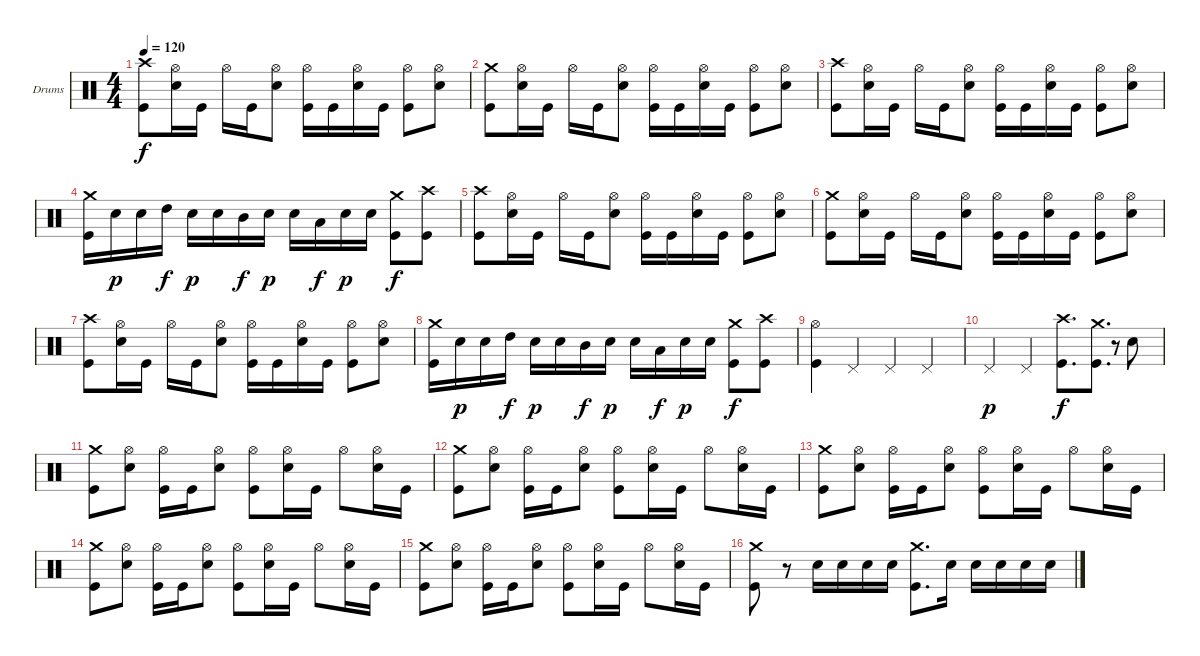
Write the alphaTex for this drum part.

\bracketExtendMode groupsimilarinstruments
\firstSystemTrackNameOrientation horizontal
\otherSystemsTrackNameOrientation horizontal
\track ("Drumkit" "Drums") {instrument percussion}
\staff {score}
\articulation defaults
\ts (4 4)
\tempo 120
\clef neutral
\ks c
("Crash high (hit)" "Kick (hit)").8{dy f} ("Hi-Hat (open)" "Snare (hit) 2").16 "Kick (hit)".16 "Hi-Hat (open)".16 "Kick (hit)".16 ("Hi-Hat (open)" "Snare (hit) 2").8 ("Hi-Hat (open)" "Kick (hit)").16 "Kick (hit)".16 ("Hi-Hat (open)" "Snare (hit) 2").16 "Kick (hit)".16 ("Hi-Hat (open)" "Kick (hit)").8 ("Hi-Hat (open)" "Snare (hit) 2").8 |
("Crash medium (hit)" "Kick (hit)").8 ("Hi-Hat (open)" "Snare (hit) 2").16 "Kick (hit)".16 "Hi-Hat (open)".16 "Kick (hit)".16 ("Hi-Hat (open)" "Snare (hit) 2").8 ("Hi-Hat (open)" "Kick (hit)").16 "Kick (hit)".16 ("Hi-Hat (open)" "Snare (hit) 2").16 "Kick (hit)".16 ("Hi-Hat (open)" "Kick (hit)").8 ("Hi-Hat (open)" "Snare (hit) 2").8 |
("Crash high (hit)" "Kick (hit)").8 ("Hi-Hat (open)" "Snare (hit) 2").16 "Kick (hit)".16 "Hi-Hat (open)".16 "Kick (hit)".16 ("Hi-Hat (open)" "Snare (hit) 2").8 ("Hi-Hat (open)" "Kick (hit)").16 "Kick (hit)".16 ("Hi-Hat (open)" "Snare (hit) 2").16 "Kick (hit)".16 ("Hi-Hat (open)" "Kick (hit)").8 ("Hi-Hat (open)" "Snare (hit) 2").8 |
("Crash medium (hit)" "Kick (hit)").16 "Snare (hit) 2".16{dy p} "Snare (hit) 2".16 "High Tom (hit)".16{dy f} "Snare (hit) 2".16{dy p} "Snare (hit) 2".16 "Mid Tom (hit)".16{dy f} "Snare (hit) 2".16{dy p} "Snare (hit) 2".16 "Low Tom (hit)".16{dy f} "Snare (hit) 2".16{dy p} "Snare (hit) 2".16 ("Crash medium (hit)" "Kick (hit)").8{dy f} ("Crash high (hit)" "Kick (hit)").8 |
("Crash high (hit)" "Kick (hit)").8 ("Hi-Hat (open)" "Snare (hit) 2").16 "Kick (hit)".16 "Hi-Hat (open)".16 "Kick (hit)".16 ("Hi-Hat (open)" "Snare (hit) 2").8 ("Hi-Hat (open)" "Kick (hit)").16 "Kick (hit)".16 ("Hi-Hat (open)" "Snare (hit) 2").16 "Kick (hit)".16 ("Hi-Hat (open)" "Kick (hit)").8 ("Hi-Hat (open)" "Snare (hit) 2").8 |
("Crash medium (hit)" "Kick (hit)").8 ("Hi-Hat (open)" "Snare (hit) 2").16 "Kick (hit)".16 "Hi-Hat (open)".16 "Kick (hit)".16 ("Hi-Hat (open)" "Snare (hit) 2").8 ("Hi-Hat (open)" "Kick (hit)").16 "Kick (hit)".16 ("Hi-Hat (open)" "Snare (hit) 2").16 "Kick (hit)".16 ("Hi-Hat (open)" "Kick (hit)").8 ("Hi-Hat (open)" "Snare (hit) 2").8 |
("Crash high (hit)" "Kick (hit)").8 ("Hi-Hat (open)" "Snare (hit) 2").16 "Kick (hit)".16 "Hi-Hat (open)".16 "Kick (hit)".16 ("Hi-Hat (open)" "Snare (hit) 2").8 ("Hi-Hat (open)" "Kick (hit)").16 "Kick (hit)".16 ("Hi-Hat (open)" "Snare (hit) 2").16 "Kick (hit)".16 ("Hi-Hat (open)" "Kick (hit)").8 ("Hi-Hat (open)" "Snare (hit) 2").8 |
("Crash medium (hit)" "Kick (hit)").16 "Snare (hit) 2".16{dy p} "Snare (hit) 2".16 "High Tom (hit)".16{dy f} "Snare (hit) 2".16{dy p} "Snare (hit) 2".16 "Mid Tom (hit)".16{dy f} "Snare (hit) 2".16{dy p} "Snare (hit) 2".16 "Low Tom (hit)".16{dy f} "Snare (hit) 2".16{dy p} "Snare (hit) 2".16 ("Crash medium (hit)" "Kick (hit)").8{dy f} ("Crash high (hit)" "Kick (hit)").8 |
("Hi-Hat (open)" "Kick (hit)").4 "Pedal Hi-Hat (hit)".4 "Pedal Hi-Hat (hit)".4 "Pedal Hi-Hat (hit)".4 |
"Pedal Hi-Hat (hit)".4{dy p} "Pedal Hi-Hat (hit)".4 ("Crash high (hit)" "Kick (hit)").8{d dy f} ("Crash medium (hit)" "Kick (hit)").8{d} r.8{gr} "Snare (hit) 2".8 |
("Crash medium (hit)" "Kick (hit)").8 ("Hi-Hat (open)" "Snare (hit) 2").8 ("Hi-Hat (open)" "Kick (hit)").16 "Kick (hit)".16 ("Hi-Hat (open)" "Snare (hit) 2").8 ("Hi-Hat (open)" "Kick (hit)").8 ("Hi-Hat (open)" "Snare (hit) 2").16 "Kick (hit)".16 "Hi-Hat (open)".8 ("Hi-Hat (open)" "Snare (hit) 2").16 "Kick (hit)".16 |
("Crash medium (hit)" "Kick (hit)").8 ("Hi-Hat (open)" "Snare (hit) 2").8 ("Hi-Hat (open)" "Kick (hit)").16 "Kick (hit)".16 ("Hi-Hat (open)" "Snare (hit) 2").8 ("Hi-Hat (open)" "Kick (hit)").8 ("Hi-Hat (open)" "Snare (hit) 2").16 "Kick (hit)".16 "Hi-Hat (open)".8 ("Hi-Hat (open)" "Snare (hit) 2").16 "Kick (hit)".16 |
("Crash medium (hit)" "Kick (hit)").8 ("Hi-Hat (open)" "Snare (hit) 2").8 ("Hi-Hat (open)" "Kick (hit)").16 "Kick (hit)".16 ("Hi-Hat (open)" "Snare (hit) 2").8 ("Hi-Hat (open)" "Kick (hit)").8 ("Hi-Hat (open)" "Snare (hit) 2").16 "Kick (hit)".16 "Hi-Hat (open)".8 ("Hi-Hat (open)" "Snare (hit) 2").16 "Kick (hit)".16 |
("Crash medium (hit)" "Kick (hit)").8 ("Hi-Hat (open)" "Snare (hit) 2").8 ("Hi-Hat (open)" "Kick (hit)").16 "Kick (hit)".16 ("Hi-Hat (open)" "Snare (hit) 2").8 ("Hi-Hat (open)" "Kick (hit)").8 ("Hi-Hat (open)" "Snare (hit) 2").16 "Kick (hit)".16 "Hi-Hat (open)".8 ("Hi-Hat (open)" "Snare (hit) 2").16 "Kick (hit)".16 |
("Crash medium (hit)" "Kick (hit)").8 ("Hi-Hat (open)" "Snare (hit) 2").8 ("Hi-Hat (open)" "Kick (hit)").16 "Kick (hit)".16 ("Hi-Hat (open)" "Snare (hit) 2").8 ("Hi-Hat (open)" "Kick (hit)").8 ("Hi-Hat (open)" "Snare (hit) 2").16 "Kick (hit)".16 "Hi-Hat (open)".8 ("Hi-Hat (open)" "Snare (hit) 2").16 "Kick (hit)".16 |
("Crash medium (hit)" "Kick (hit)").8 r.8 "Snare (hit) 2".16 "Snare (hit) 2".16 "Snare (hit) 2".16 "Snare (hit) 2".16 ("Crash medium (hit)" "Kick (hit)").8{d} "Snare (hit) 2".16 "Snare (hit) 2".16 "Snare (hit) 2".16 "Snare (hit) 2".16 "Snare (hit) 2".16
